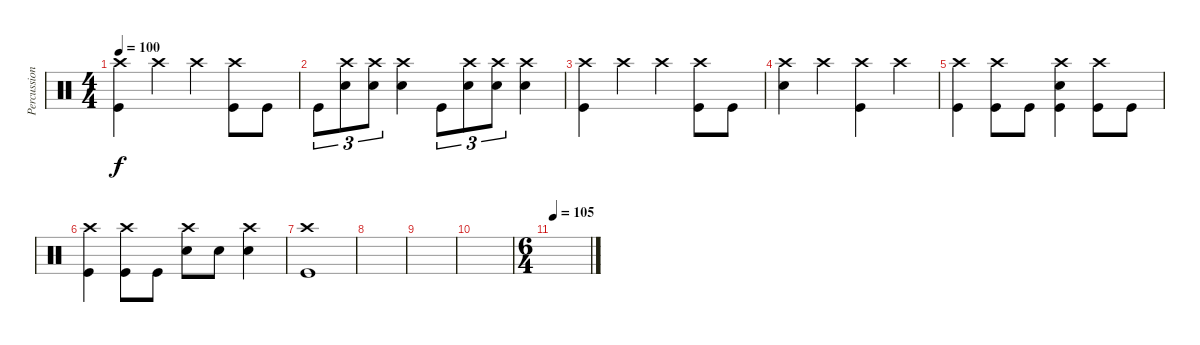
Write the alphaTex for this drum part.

\track ("Percussions" "Percussion") {instrument percussion}
\staff {score}
\articulation defaults
\ts (4 4)
\tempo 100
\clef neutral
\ks c
("Crash high (hit)" "Kick (hit)").4{dy f} "Crash high (hit)".4 "Crash high (hit)".4 ("Crash high (hit)" "Kick (hit)").8 "Kick (hit)".8 |
"Kick (hit)".8{tu (3 2)} ("Crash high (hit)" "Snare (hit) 2").8{tu (3 2)} ("Crash high (hit)" "Snare (hit) 2").8{tu (3 2)} ("Crash high (hit)" "Snare (hit) 2").4 "Kick (hit)".8{tu (3 2)} ("Crash high (hit)" "Snare (hit) 2").8{tu (3 2)} ("Crash high (hit)" "Snare (hit) 2").8{tu (3 2)} ("Crash high (hit)" "Snare (hit) 2").4 |
("Crash high (hit)" "Kick (hit)").4 "Crash high (hit)".4 "Crash high (hit)".4 ("Crash high (hit)" "Kick (hit)").8 "Kick (hit)".8 |
("Crash high (hit)" "Snare (hit) 2").4 "Crash high (hit)".4 ("Crash high (hit)" "Kick (hit)").4 "Crash high (hit)".4 |
("Crash high (hit)" "Kick (hit)").4 ("Crash high (hit)" "Kick (hit)").8 "Kick (hit)".8 ("Crash high (hit)" "Snare (hit) 2" "Kick (hit)").4 ("Crash high (hit)" "Kick (hit)").8 "Kick (hit)".8 |
("Crash high (hit)" "Kick (hit)").4 ("Crash high (hit)" "Kick (hit)").8 "Kick (hit)".8 ("Crash high (hit)" "Snare (hit) 2").8 "Snare (hit) 2".8 ("Crash high (hit)" "Snare (hit) 2").4 |
("Crash high (hit)" "Kick (hit)").1 |
|
|
|
\ts (6 4)
\tempo 105
